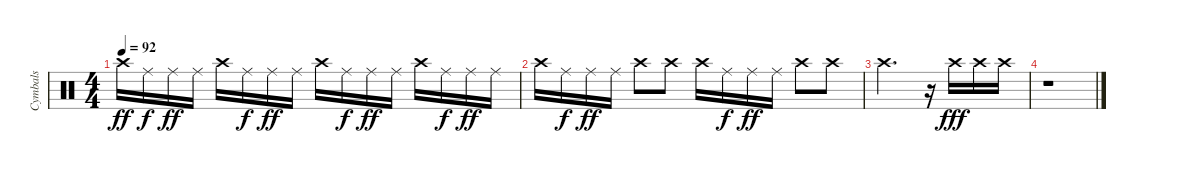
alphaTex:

\track ("Cymbals" "Cymbals") {instrument percussion}
\staff {score}
\articulation defaults
\ts (4 4)
\tempo 92
\clef neutral
\ks c "Crash high (hit)".16{dy ff} "Ride (middle)".16{dy f} "Ride (middle)".16{dy ff} "Ride (middle)".16 "Crash high (hit)".16 "Ride (middle)".16{dy f} "Ride (middle)".16{dy ff} "Ride (middle)".16 "Crash high (hit)".16 "Ride (middle)".16{dy f} "Ride (middle)".16{dy ff} "Ride (middle)".16 "Crash high (hit)".16 "Ride (middle)".16{dy f} "Ride (middle)".16{dy ff} "Ride (middle)".16
|
"Crash high (hit)".16 "Ride (middle)".16{dy f} "Ride (middle)".16{dy ff} "Ride (middle)".16 "Crash high (hit)".8 "Crash high (hit)".8 "Crash high (hit)".16 "Ride (middle)".16{dy f} "Ride (middle)".16{dy ff} "Ride (middle)".16 "Crash high (hit)".8 "Crash high (hit)".8 |
"Crash high (hit)".2{d} r.16 "Crash high (hit)".16{dy fff} "Crash high (hit)".16 "Crash high (hit)".16 |
r.1
